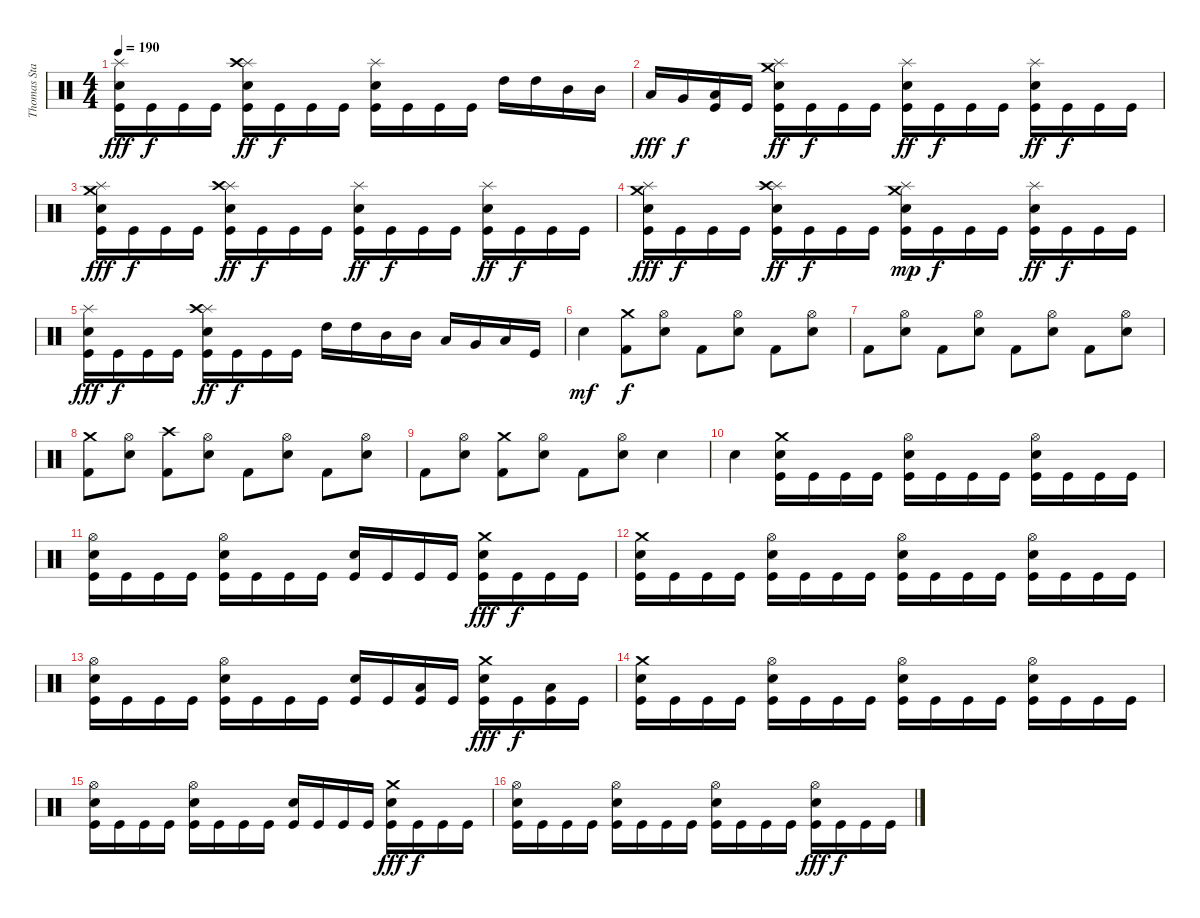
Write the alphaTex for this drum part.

\track ("Thomas Stauch" "Thomas Sta") {instrument percussion}
\staff {score}
\articulation defaults
\ts (4 4)
\tempo 190
\clef neutral
\ks c
("Splash (hit)" "Electric Snare (hit)" "Kick (hit)").16{dy fff} "Kick (hit)".16{dy f} "Kick (hit)".16 "Kick (hit)".16 ("Splash (hit)" "Crash high (hit)" "Electric Snare (hit)" "Kick (hit)").16{dy ff} "Kick (hit)".16{dy f} "Kick (hit)".16 "Kick (hit)".16 ("Splash (hit)" "Electric Snare (hit)" "Kick (hit)").16 "Kick (hit)".16 "Kick (hit)".16 "Kick (hit)".16 "High Tom (hit)".16 "High Tom (hit)".16 "Mid Tom (hit)".16 "Mid Tom (hit)".16 |
"Low Tom (hit)".16{dy fff} "Very Low Tom (hit)".16{dy f} ("Low Floor Tom (hit)" "Kick (hit)").16 "Kick (hit)".16 ("Splash (hit)" "Crash medium (hit)" "Electric Snare (hit)" "Kick (hit)").16{dy ff} "Kick (hit)".16{dy f} "Kick (hit)".16 "Kick (hit)".16 ("Splash (hit)" "Electric Snare (hit)" "Kick (hit)").16{dy ff} "Kick (hit)".16{dy f} "Kick (hit)".16 "Kick (hit)".16 ("Splash (hit)" "Electric Snare (hit)" "Kick (hit)").16{dy ff} "Kick (hit)".16{dy f} "Kick (hit)".16 "Kick (hit)".16 |
("Splash (hit)" "Crash medium (hit)" "Electric Snare (hit)" "Kick (hit)").16{dy fff} "Kick (hit)".16{dy f} "Kick (hit)".16 "Kick (hit)".16 ("Splash (hit)" "Crash high (hit)" "Electric Snare (hit)" "Kick (hit)").16{dy ff} "Kick (hit)".16{dy f} "Kick (hit)".16 "Kick (hit)".16 ("Splash (hit)" "Electric Snare (hit)" "Kick (hit)").16{dy ff} "Kick (hit)".16{dy f} "Kick (hit)".16 "Kick (hit)".16 ("Splash (hit)" "Electric Snare (hit)" "Kick (hit)").16{dy ff} "Kick (hit)".16{dy f} "Kick (hit)".16 "Kick (hit)".16 |
("Splash (hit)" "Crash medium (hit)" "Electric Snare (hit)" "Kick (hit)").16{dy fff} "Kick (hit)".16{dy f} "Kick (hit)".16 "Kick (hit)".16 ("Splash (hit)" "Crash high (hit)" "Electric Snare (hit)" "Kick (hit)").16{dy ff} "Kick (hit)".16{dy f} "Kick (hit)".16 "Kick (hit)".16 ("Splash (hit)" "Crash medium (hit)" "Electric Snare (hit)" "Kick (hit)").16{dy mp} "Kick (hit)".16{dy f} "Kick (hit)".16 "Kick (hit)".16 ("Splash (hit)" "Electric Snare (hit)" "Kick (hit)").16{dy ff} "Kick (hit)".16{dy f} "Kick (hit)".16 "Kick (hit)".16 |
("Splash (hit)" "Electric Snare (hit)" "Kick (hit)").16{dy fff} "Kick (hit)".16{dy f} "Kick (hit)".16 "Kick (hit)".16 ("Splash (hit)" "Crash high (hit)" "Electric Snare (hit)" "Kick (hit)").16{dy ff} "Kick (hit)".16{dy f} "Kick (hit)".16 "Kick (hit)".16 "High Tom (hit)".16 "High Tom (hit)".16 "Mid Tom (hit)".16 "Mid Tom (hit)".16 "Low Tom (hit)".16 "Very Low Tom (hit)".16 "Low Floor Tom (hit)".16 "Kick (hit)".16 |
"Electric Snare (hit)".4{dy mf} ("Crash medium (hit)" "Kick (hit) 2").8{dy f} ("Hi-Hat (open)" "Electric Snare (hit)").8 "Kick (hit) 2".8 ("Hi-Hat (open)" "Electric Snare (hit)").8 "Kick (hit) 2".8 ("Hi-Hat (open)" "Electric Snare (hit)").8 |
"Kick (hit) 2".8 ("Hi-Hat (open)" "Electric Snare (hit)").8 "Kick (hit) 2".8 ("Hi-Hat (open)" "Electric Snare (hit)").8 "Kick (hit) 2".8 ("Hi-Hat (open)" "Electric Snare (hit)").8 "Kick (hit) 2".8 ("Hi-Hat (open)" "Electric Snare (hit)").8 |
("Crash medium (hit)" "Kick (hit) 2").8 ("Hi-Hat (open)" "Electric Snare (hit)").8 ("Crash high (hit)" "Kick (hit) 2").8 ("Hi-Hat (open)" "Electric Snare (hit)").8 "Kick (hit) 2".8 ("Hi-Hat (open)" "Electric Snare (hit)").8 "Kick (hit) 2".8 ("Hi-Hat (open)" "Electric Snare (hit)").8 |
"Kick (hit) 2".8 ("Hi-Hat (open)" "Electric Snare (hit)").8 ("Crash medium (hit)" "Kick (hit) 2").8 ("Hi-Hat (open)" "Electric Snare (hit)").8 "Kick (hit) 2".8 ("Hi-Hat (open)" "Electric Snare (hit)").8 "Electric Snare (hit)".4 |
"Electric Snare (hit)".4 ("Crash medium (hit)" "Electric Snare (hit)" "Kick (hit)").16 "Kick (hit)".16 "Kick (hit)".16 "Kick (hit)".16 ("Hi-Hat (open)" "Electric Snare (hit)" "Kick (hit)").16 "Kick (hit)".16 "Kick (hit)".16 "Kick (hit)".16 ("Hi-Hat (open)" "Electric Snare (hit)" "Kick (hit)").16 "Kick (hit)".16 "Kick (hit)".16 "Kick (hit)".16 |
("Hi-Hat (open)" "Electric Snare (hit)" "Kick (hit)").16 "Kick (hit)".16 "Kick (hit)".16 "Kick (hit)".16 ("Hi-Hat (open)" "Electric Snare (hit)" "Kick (hit)").16 "Kick (hit)".16 "Kick (hit)".16 "Kick (hit)".16 ("Electric Snare (hit)" "Kick (hit)").16 "Kick (hit)".16 "Kick (hit)".16 "Kick (hit)".16 ("Crash medium (hit)" "Electric Snare (hit)" "Kick (hit)").16{dy fff} "Kick (hit)".16{dy f} "Kick (hit)".16 "Kick (hit)".16 |
("Crash medium (hit)" "Electric Snare (hit)" "Kick (hit)").16 "Kick (hit)".16 "Kick (hit)".16 "Kick (hit)".16 ("Hi-Hat (open)" "Electric Snare (hit)" "Kick (hit)").16 "Kick (hit)".16 "Kick (hit)".16 "Kick (hit)".16 ("Hi-Hat (open)" "Electric Snare (hit)" "Kick (hit)").16 "Kick (hit)".16 "Kick (hit)".16 "Kick (hit)".16 ("Hi-Hat (open)" "Electric Snare (hit)" "Kick (hit)").16 "Kick (hit)".16 "Kick (hit)".16 "Kick (hit)".16 |
("Hi-Hat (open)" "Electric Snare (hit)" "Kick (hit)").16 "Kick (hit)".16 "Kick (hit)".16 "Kick (hit)".16 ("Hi-Hat (open)" "Electric Snare (hit)" "Kick (hit)").16 "Kick (hit)".16 "Kick (hit)".16 "Kick (hit)".16 ("Electric Snare (hit)" "Kick (hit)").16 "Kick (hit)".16 ("Low Floor Tom (hit)" "Kick (hit)").16 "Kick (hit)".16 ("Crash medium (hit)" "Electric Snare (hit)" "Kick (hit)").16{dy fff} "Kick (hit)".16{dy f} ("Low Floor Tom (hit)" "Kick (hit)").16 "Kick (hit)".16 |
("Crash medium (hit)" "Electric Snare (hit)" "Kick (hit)").16 "Kick (hit)".16 "Kick (hit)".16 "Kick (hit)".16 ("Hi-Hat (open)" "Electric Snare (hit)" "Kick (hit)").16 "Kick (hit)".16 "Kick (hit)".16 "Kick (hit)".16 ("Hi-Hat (open)" "Electric Snare (hit)" "Kick (hit)").16 "Kick (hit)".16 "Kick (hit)".16 "Kick (hit)".16 ("Hi-Hat (open)" "Electric Snare (hit)" "Kick (hit)").16 "Kick (hit)".16 "Kick (hit)".16 "Kick (hit)".16 |
("Hi-Hat (open)" "Electric Snare (hit)" "Kick (hit)").16 "Kick (hit)".16 "Kick (hit)".16 "Kick (hit)".16 ("Hi-Hat (open)" "Electric Snare (hit)" "Kick (hit)").16 "Kick (hit)".16 "Kick (hit)".16 "Kick (hit)".16 ("Electric Snare (hit)" "Kick (hit)").16 "Kick (hit)".16 "Kick (hit)".16 "Kick (hit)".16 ("Crash medium (hit)" "Electric Snare (hit)" "Kick (hit)").16{dy fff} "Kick (hit)".16{dy f} "Kick (hit)".16 "Kick (hit)".16 |
("Hi-Hat (open)" "Electric Snare (hit)" "Kick (hit)").16 "Kick (hit)".16 "Kick (hit)".16 "Kick (hit)".16 ("Hi-Hat (open)" "Electric Snare (hit)" "Kick (hit)").16 "Kick (hit)".16 "Kick (hit)".16 "Kick (hit)".16 ("Hi-Hat (open)" "Electric Snare (hit)" "Kick (hit)").16 "Kick (hit)".16 "Kick (hit)".16 "Kick (hit)".16 ("Hi-Hat (open)" "Electric Snare (hit)" "Kick (hit)").16{dy fff} "Kick (hit)".16{dy f} "Kick (hit)".16 "Kick (hit)".16
